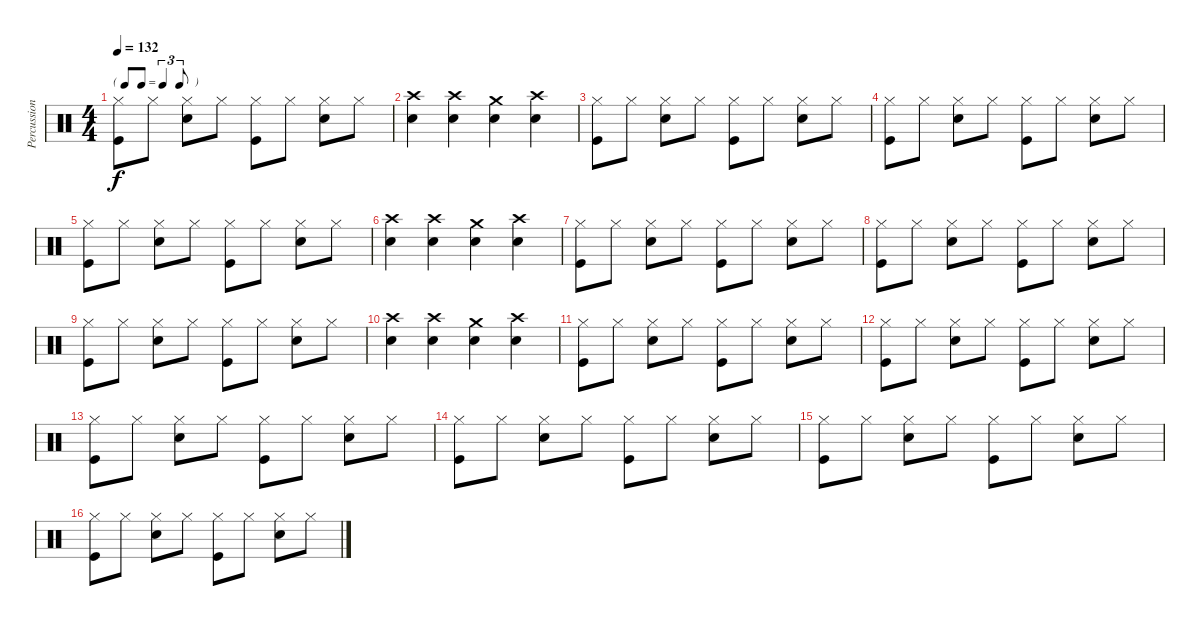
\track ("Percussion" "Percussion") {instrument percussion}
\staff {score}
\articulation defaults
\ts (4 4)
\tf triplet8th
\tempo 132
\clef neutral
\ks c
("Hi-Hat (closed)" "Kick (hit)").8{dy f} "Hi-Hat (closed)".8 ("Hi-Hat (closed)" "Snare (hit) 2").8 "Hi-Hat (closed)".8 ("Hi-Hat (closed)" "Kick (hit)").8 "Hi-Hat (closed)".8 ("Hi-Hat (closed)" "Snare (hit) 2").8 "Hi-Hat (closed)".8 |
("Crash high (hit)" "Snare (hit) 2").4 ("Crash high (hit)" "Snare (hit) 2").4 ("Crash medium (hit)" "Snare (hit) 2").4 ("Crash high (hit)" "Snare (hit) 2").4 |
("Hi-Hat (closed)" "Kick (hit)").8 "Hi-Hat (closed)".8 ("Hi-Hat (closed)" "Snare (hit) 2").8 "Hi-Hat (closed)".8 ("Hi-Hat (closed)" "Kick (hit)").8 "Hi-Hat (closed)".8 ("Hi-Hat (closed)" "Snare (hit) 2").8 "Hi-Hat (closed)".8 |
("Hi-Hat (closed)" "Kick (hit)").8 "Hi-Hat (closed)".8 ("Hi-Hat (closed)" "Snare (hit) 2").8 "Hi-Hat (closed)".8 ("Hi-Hat (closed)" "Kick (hit)").8 "Hi-Hat (closed)".8 ("Hi-Hat (closed)" "Snare (hit) 2").8 "Hi-Hat (closed)".8 |
("Hi-Hat (closed)" "Kick (hit)").8 "Hi-Hat (closed)".8 ("Hi-Hat (closed)" "Snare (hit) 2").8 "Hi-Hat (closed)".8 ("Hi-Hat (closed)" "Kick (hit)").8 "Hi-Hat (closed)".8 ("Hi-Hat (closed)" "Snare (hit) 2").8 "Hi-Hat (closed)".8 |
("Crash high (hit)" "Snare (hit) 2").4 ("Crash high (hit)" "Snare (hit) 2").4 ("Crash medium (hit)" "Snare (hit) 2").4 ("Crash high (hit)" "Snare (hit) 2").4 |
("Hi-Hat (closed)" "Kick (hit)").8 "Hi-Hat (closed)".8 ("Hi-Hat (closed)" "Snare (hit) 2").8 "Hi-Hat (closed)".8 ("Hi-Hat (closed)" "Kick (hit)").8 "Hi-Hat (closed)".8 ("Hi-Hat (closed)" "Snare (hit) 2").8 "Hi-Hat (closed)".8 |
("Hi-Hat (closed)" "Kick (hit)").8 "Hi-Hat (closed)".8 ("Hi-Hat (closed)" "Snare (hit) 2").8 "Hi-Hat (closed)".8 ("Hi-Hat (closed)" "Kick (hit)").8 "Hi-Hat (closed)".8 ("Hi-Hat (closed)" "Snare (hit) 2").8 "Hi-Hat (closed)".8 |
("Hi-Hat (closed)" "Kick (hit)").8 "Hi-Hat (closed)".8 ("Hi-Hat (closed)" "Snare (hit) 2").8 "Hi-Hat (closed)".8 ("Hi-Hat (closed)" "Kick (hit)").8 "Hi-Hat (closed)".8 ("Hi-Hat (closed)" "Snare (hit) 2").8 "Hi-Hat (closed)".8 |
("Crash high (hit)" "Snare (hit) 2").4 ("Crash high (hit)" "Snare (hit) 2").4 ("Crash medium (hit)" "Snare (hit) 2").4 ("Crash high (hit)" "Snare (hit) 2").4 |
("Hi-Hat (closed)" "Kick (hit)").8 "Hi-Hat (closed)".8 ("Hi-Hat (closed)" "Snare (hit) 2").8 "Hi-Hat (closed)".8 ("Hi-Hat (closed)" "Kick (hit)").8 "Hi-Hat (closed)".8 ("Hi-Hat (closed)" "Snare (hit) 2").8 "Hi-Hat (closed)".8 |
("Hi-Hat (closed)" "Kick (hit)").8 "Hi-Hat (closed)".8 ("Hi-Hat (closed)" "Snare (hit) 2").8 "Hi-Hat (closed)".8 ("Hi-Hat (closed)" "Kick (hit)").8 "Hi-Hat (closed)".8 ("Hi-Hat (closed)" "Snare (hit) 2").8 "Hi-Hat (closed)".8 |
("Hi-Hat (closed)" "Kick (hit)").8 "Hi-Hat (closed)".8 ("Hi-Hat (closed)" "Snare (hit) 2").8 "Hi-Hat (closed)".8 ("Hi-Hat (closed)" "Kick (hit)").8 "Hi-Hat (closed)".8 ("Hi-Hat (closed)" "Snare (hit) 2").8 "Hi-Hat (closed)".8 |
("Hi-Hat (closed)" "Kick (hit)").8 "Hi-Hat (closed)".8 ("Hi-Hat (closed)" "Snare (hit) 2").8 "Hi-Hat (closed)".8 ("Hi-Hat (closed)" "Kick (hit)").8 "Hi-Hat (closed)".8 ("Hi-Hat (closed)" "Snare (hit) 2").8 "Hi-Hat (closed)".8 |
("Hi-Hat (closed)" "Kick (hit)").8 "Hi-Hat (closed)".8 ("Hi-Hat (closed)" "Snare (hit) 2").8 "Hi-Hat (closed)".8 ("Hi-Hat (closed)" "Kick (hit)").8 "Hi-Hat (closed)".8 ("Hi-Hat (closed)" "Snare (hit) 2").8 "Hi-Hat (closed)".8 |
("Hi-Hat (closed)" "Kick (hit)").8 "Hi-Hat (closed)".8 ("Hi-Hat (closed)" "Snare (hit) 2").8 "Hi-Hat (closed)".8 ("Hi-Hat (closed)" "Kick (hit)").8 "Hi-Hat (closed)".8 ("Hi-Hat (closed)" "Snare (hit) 2").8 "Hi-Hat (closed)".8
